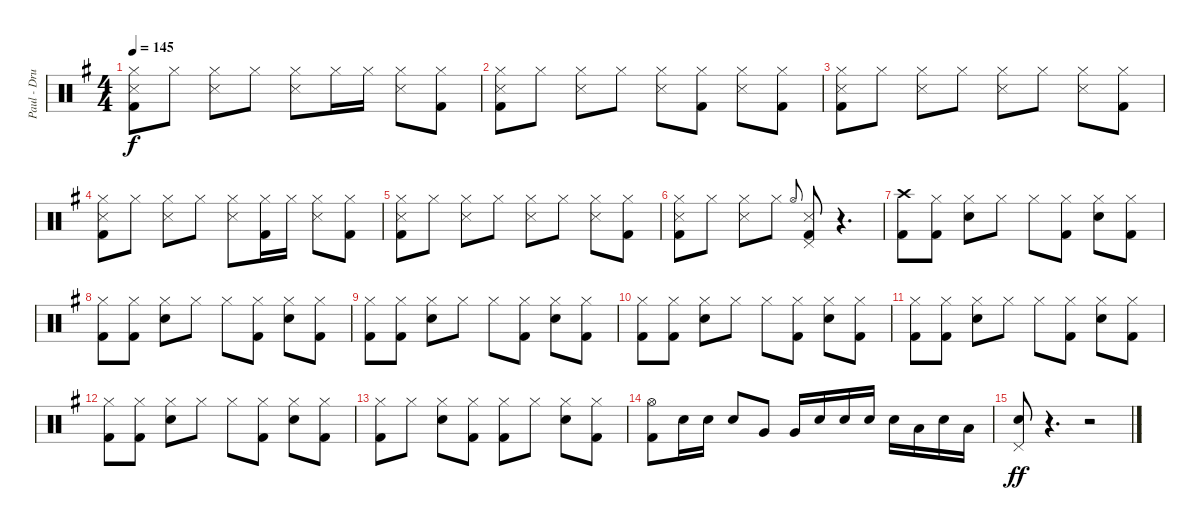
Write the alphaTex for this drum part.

\track ("Paul - Drums" "Paul - Dru") {instrument percussion}
\staff {score}
\articulation defaults
\ts (4 4)
\tempo 145
\clef neutral
\ks g
("Hi-Hat (closed)" "Snare (side stick) 3" "Kick (hit) 2").8{dy f} "Hi-Hat (closed)".8 ("Hi-Hat (closed)" "Snare (side stick) 3").8 "Hi-Hat (closed)".8 ("Hi-Hat (closed)" "Snare (side stick) 3").8 "Hi-Hat (closed)".16 "Hi-Hat (closed)".16 ("Hi-Hat (closed)" "Snare (side stick) 3").8 ("Hi-Hat (closed)" "Kick (hit) 2").8 |
("Hi-Hat (closed)" "Snare (side stick) 3" "Kick (hit) 2").8 "Hi-Hat (closed)".8 ("Hi-Hat (closed)" "Snare (side stick) 3").8 "Hi-Hat (closed)".8 ("Hi-Hat (closed)" "Snare (side stick) 3").8 ("Hi-Hat (closed)" "Kick (hit) 2").8 ("Hi-Hat (closed)" "Snare (side stick) 3").8 ("Hi-Hat (closed)" "Kick (hit) 2").8 |
("Hi-Hat (closed)" "Snare (side stick) 3" "Kick (hit) 2").8 "Hi-Hat (closed)".8 ("Hi-Hat (closed)" "Snare (side stick) 3").8 "Hi-Hat (closed)".8 ("Hi-Hat (closed)" "Snare (side stick) 3").8 "Hi-Hat (closed)".8 ("Hi-Hat (closed)" "Snare (side stick) 3").8 ("Hi-Hat (closed)" "Kick (hit) 2").8 |
("Hi-Hat (closed)" "Snare (side stick) 3" "Kick (hit) 2").8 "Hi-Hat (closed)".8 ("Hi-Hat (closed)" "Snare (side stick) 3").8 "Hi-Hat (closed)".8 ("Hi-Hat (closed)" "Snare (side stick) 3").8 ("Hi-Hat (closed)" "Kick (hit) 2").16 "Hi-Hat (closed)".16 ("Hi-Hat (closed)" "Snare (side stick) 3").8 ("Hi-Hat (closed)" "Kick (hit) 2").8 |
("Hi-Hat (closed)" "Snare (side stick) 3" "Kick (hit) 2").8 "Hi-Hat (closed)".8 ("Hi-Hat (closed)" "Snare (side stick) 3").8 "Hi-Hat (closed)".8 ("Hi-Hat (closed)" "Snare (side stick) 3").8 "Hi-Hat (closed)".8 ("Hi-Hat (closed)" "Snare (side stick) 3").8 ("Hi-Hat (closed)" "Kick (hit) 2").8 |
("Hi-Hat (closed)" "Snare (side stick) 3" "Kick (hit) 2").8 "Hi-Hat (closed)".8 ("Hi-Hat (closed)" "Snare (side stick) 3").8 "Hi-Hat (closed)".8 "Hi-Hat (open)".8{gr onbeat} ("Pedal Hi-Hat (hit)" "Snare (side stick) 3" "Kick (hit) 2").8 r.4{d} |
("Crash high (hit)" "Kick (hit) 2").8 ("Hi-Hat (closed)" "Kick (hit) 2").8 ("Hi-Hat (closed)" "Electric Snare (hit)").8 "Hi-Hat (closed)".8 "Hi-Hat (closed)".8 ("Hi-Hat (closed)" "Kick (hit) 2").8 ("Hi-Hat (closed)" "Electric Snare (hit)").8 ("Hi-Hat (closed)" "Kick (hit) 2").8 |
("Hi-Hat (closed)" "Kick (hit) 2").8 ("Hi-Hat (closed)" "Kick (hit) 2").8 ("Hi-Hat (closed)" "Electric Snare (hit)").8 "Hi-Hat (closed)".8 "Hi-Hat (closed)".8 ("Hi-Hat (closed)" "Kick (hit) 2").8 ("Hi-Hat (closed)" "Electric Snare (hit)").8 ("Hi-Hat (closed)" "Kick (hit) 2").8 |
("Hi-Hat (closed)" "Kick (hit) 2").8 ("Hi-Hat (closed)" "Kick (hit) 2").8 ("Hi-Hat (closed)" "Electric Snare (hit)").8 "Hi-Hat (closed)".8 "Hi-Hat (closed)".8 ("Hi-Hat (closed)" "Kick (hit) 2").8 ("Hi-Hat (closed)" "Electric Snare (hit)").8 ("Hi-Hat (closed)" "Kick (hit) 2").8 |
("Hi-Hat (closed)" "Kick (hit) 2").8 ("Hi-Hat (closed)" "Kick (hit) 2").8 ("Hi-Hat (closed)" "Electric Snare (hit)").8 "Hi-Hat (closed)".8 "Hi-Hat (closed)".8 ("Hi-Hat (closed)" "Kick (hit) 2").8 ("Hi-Hat (closed)" "Electric Snare (hit)").8 ("Hi-Hat (closed)" "Kick (hit) 2").8 |
("Hi-Hat (closed)" "Kick (hit) 2").8 ("Hi-Hat (closed)" "Kick (hit) 2").8 ("Hi-Hat (closed)" "Electric Snare (hit)").8 "Hi-Hat (closed)".8 "Hi-Hat (closed)".8 ("Hi-Hat (closed)" "Kick (hit) 2").8 ("Hi-Hat (closed)" "Electric Snare (hit)").8 ("Hi-Hat (closed)" "Kick (hit) 2").8 |
("Hi-Hat (closed)" "Kick (hit) 2").8 ("Hi-Hat (closed)" "Kick (hit) 2").8 ("Hi-Hat (closed)" "Electric Snare (hit)").8 "Hi-Hat (closed)".8 "Hi-Hat (closed)".8 ("Hi-Hat (closed)" "Kick (hit) 2").8 ("Hi-Hat (closed)" "Electric Snare (hit)").8 ("Hi-Hat (closed)" "Kick (hit) 2").8 |
("Hi-Hat (closed)" "Kick (hit) 2").8 "Hi-Hat (closed)".8 ("Hi-Hat (closed)" "Electric Snare (hit)").8 ("Hi-Hat (closed)" "Kick (hit) 2").8 ("Hi-Hat (closed)" "Kick (hit) 2").8 "Hi-Hat (closed)".8 ("Hi-Hat (closed)" "Electric Snare (hit)").8 ("Hi-Hat (closed)" "Kick (hit) 2").8 |
("Hi-Hat (open)" "Kick (hit) 2").8 "Electric Snare (hit)".16 "Electric Snare (hit)".16 "Electric Snare (hit)".8 "Very Low Tom (hit)".8 "Very Low Tom (hit)".16 "Electric Snare (hit)".16 "Electric Snare (hit)".16 "Electric Snare (hit)".16 "Electric Snare (hit)".16 "Low Tom (hit)".16 "Electric Snare (hit)".16 "Low Tom (hit)".16 |
("Pedal Hi-Hat (hit)" "Electric Snare (hit)").8{dy ff} r.4{d} r.2
